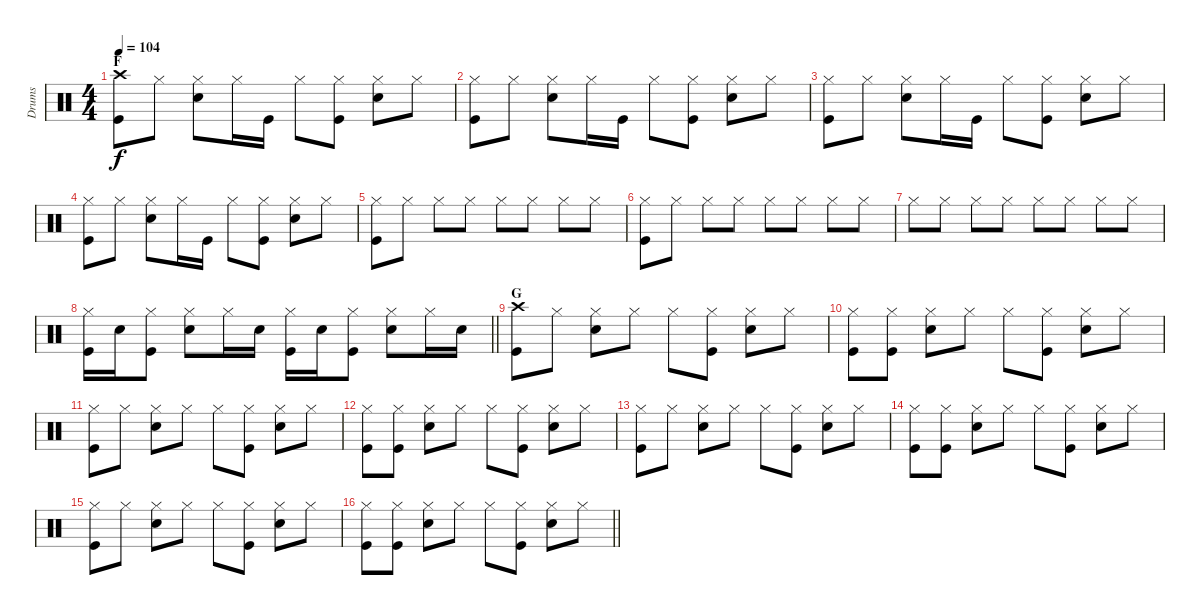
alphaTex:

\track ("Drums" "Drums") {instrument percussion}
\staff {score}
\articulation defaults
\ts (4 4)
\section ("" "F")
\tempo 104
\clef neutral
\ks c
("Crash high (hit)" "Kick (hit)").8{dy f} "Hi-Hat (closed)".8 ("Hi-Hat (closed)" "Electric Snare (hit)").8 "Hi-Hat (closed)".16 "Kick (hit)".16 "Hi-Hat (closed)".8 ("Hi-Hat (closed)" "Kick (hit)").8 ("Hi-Hat (closed)" "Electric Snare (hit)").8 "Hi-Hat (closed)".8 |
("Hi-Hat (closed)" "Kick (hit)").8 "Hi-Hat (closed)".8 ("Hi-Hat (closed)" "Electric Snare (hit)").8 "Hi-Hat (closed)".16 "Kick (hit)".16 "Hi-Hat (closed)".8 ("Hi-Hat (closed)" "Kick (hit)").8 ("Hi-Hat (closed)" "Electric Snare (hit)").8 "Hi-Hat (closed)".8 |
("Hi-Hat (closed)" "Kick (hit)").8 "Hi-Hat (closed)".8 ("Hi-Hat (closed)" "Electric Snare (hit)").8 "Hi-Hat (closed)".16 "Kick (hit)".16 "Hi-Hat (closed)".8 ("Hi-Hat (closed)" "Kick (hit)").8 ("Hi-Hat (closed)" "Electric Snare (hit)").8 "Hi-Hat (closed)".8 |
("Hi-Hat (closed)" "Kick (hit)").8 "Hi-Hat (closed)".8 ("Hi-Hat (closed)" "Electric Snare (hit)").8 "Hi-Hat (closed)".16 "Kick (hit)".16 "Hi-Hat (closed)".8 ("Hi-Hat (closed)" "Kick (hit)").8 ("Hi-Hat (closed)" "Electric Snare (hit)").8 "Hi-Hat (closed)".8 |
("Hi-Hat (closed)" "Kick (hit)").8 "Hi-Hat (closed)".8 "Hi-Hat (closed)".8 "Hi-Hat (closed)".8 "Hi-Hat (closed)".8 "Hi-Hat (closed)".8 "Hi-Hat (closed)".8 "Hi-Hat (closed)".8 |
("Hi-Hat (closed)" "Kick (hit)").8 "Hi-Hat (closed)".8 "Hi-Hat (closed)".8 "Hi-Hat (closed)".8 "Hi-Hat (closed)".8 "Hi-Hat (closed)".8 "Hi-Hat (closed)".8 "Hi-Hat (closed)".8 |
"Hi-Hat (closed)".8 "Hi-Hat (closed)".8 "Hi-Hat (closed)".8 "Hi-Hat (closed)".8 "Hi-Hat (closed)".8 "Hi-Hat (closed)".8 "Hi-Hat (closed)".8 "Hi-Hat (closed)".8 |
\barLineRight lightlight
("Hi-Hat (closed)" "Kick (hit)").16 "Electric Snare (hit)".16 ("Hi-Hat (closed)" "Kick (hit)").8 ("Hi-Hat (closed)" "Electric Snare (hit)").8 "Hi-Hat (closed)".16 "Electric Snare (hit)".16 ("Hi-Hat (closed)" "Kick (hit)").16 "Electric Snare (hit)".16 ("Hi-Hat (closed)" "Kick (hit)").8 ("Hi-Hat (closed)" "Electric Snare (hit)").8 "Hi-Hat (closed)".16 "Electric Snare (hit)".16 |
\section ("" "G")
("Crash high (hit)" "Kick (hit)").8 "Hi-Hat (closed)".8 ("Hi-Hat (closed)" "Electric Snare (hit)").8 "Hi-Hat (closed)".8 "Hi-Hat (closed)".8 ("Hi-Hat (closed)" "Kick (hit)").8 ("Hi-Hat (closed)" "Electric Snare (hit)").8 "Hi-Hat (closed)".8 |
("Hi-Hat (closed)" "Kick (hit)").8 ("Hi-Hat (closed)" "Kick (hit)").8 ("Hi-Hat (closed)" "Electric Snare (hit)").8 "Hi-Hat (closed)".8 "Hi-Hat (closed)".8 ("Hi-Hat (closed)" "Kick (hit)").8 ("Hi-Hat (closed)" "Electric Snare (hit)").8 "Hi-Hat (closed)".8 |
("Hi-Hat (closed)" "Kick (hit)").8 "Hi-Hat (closed)".8 ("Hi-Hat (closed)" "Electric Snare (hit)").8 "Hi-Hat (closed)".8 "Hi-Hat (closed)".8 ("Hi-Hat (closed)" "Kick (hit)").8 ("Hi-Hat (closed)" "Electric Snare (hit)").8 "Hi-Hat (closed)".8 |
("Hi-Hat (closed)" "Kick (hit)").8 ("Hi-Hat (closed)" "Kick (hit)").8 ("Hi-Hat (closed)" "Electric Snare (hit)").8 "Hi-Hat (closed)".8 "Hi-Hat (closed)".8 ("Hi-Hat (closed)" "Kick (hit)").8 ("Hi-Hat (closed)" "Electric Snare (hit)").8 "Hi-Hat (closed)".8 |
("Hi-Hat (closed)" "Kick (hit)").8 "Hi-Hat (closed)".8 ("Hi-Hat (closed)" "Electric Snare (hit)").8 "Hi-Hat (closed)".8 "Hi-Hat (closed)".8 ("Hi-Hat (closed)" "Kick (hit)").8 ("Hi-Hat (closed)" "Electric Snare (hit)").8 "Hi-Hat (closed)".8 |
("Hi-Hat (closed)" "Kick (hit)").8 ("Hi-Hat (closed)" "Kick (hit)").8 ("Hi-Hat (closed)" "Electric Snare (hit)").8 "Hi-Hat (closed)".8 "Hi-Hat (closed)".8 ("Hi-Hat (closed)" "Kick (hit)").8 ("Hi-Hat (closed)" "Electric Snare (hit)").8 "Hi-Hat (closed)".8 |
("Hi-Hat (closed)" "Kick (hit)").8 "Hi-Hat (closed)".8 ("Hi-Hat (closed)" "Electric Snare (hit)").8 "Hi-Hat (closed)".8 "Hi-Hat (closed)".8 ("Hi-Hat (closed)" "Kick (hit)").8 ("Hi-Hat (closed)" "Electric Snare (hit)").8 "Hi-Hat (closed)".8 |
\barLineRight lightlight
("Hi-Hat (closed)" "Kick (hit)").8 ("Hi-Hat (closed)" "Kick (hit)").8 ("Hi-Hat (closed)" "Electric Snare (hit)").8 "Hi-Hat (closed)".8 "Hi-Hat (closed)".8 ("Hi-Hat (closed)" "Kick (hit)").8 ("Hi-Hat (closed)" "Electric Snare (hit)").8 "Hi-Hat (closed)".8
